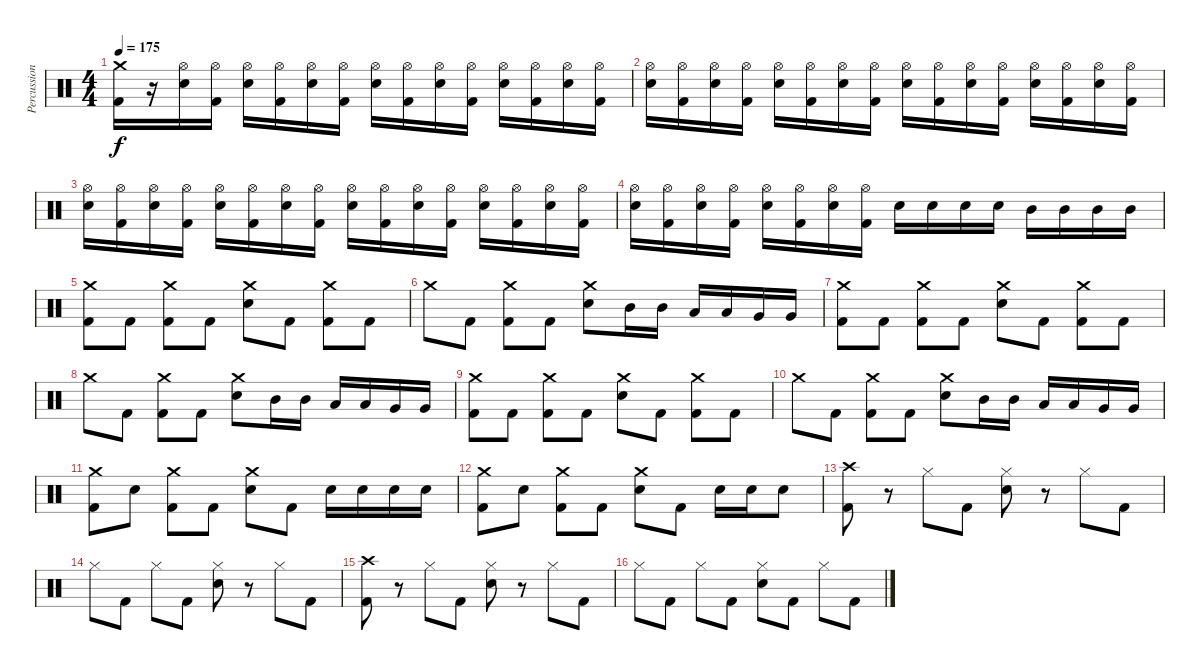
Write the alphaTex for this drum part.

\track ("Percussion" "Percussion") {instrument percussion}
\staff {score}
\articulation defaults
\ts (4 4)
\tempo 175
\clef neutral
\ks c
("Kick (hit) 2" "Crash medium (hit)").16{dy f} r.16 ("Electric Snare (hit)" "Hi-Hat (open)").16 ("Kick (hit) 2" "Hi-Hat (open)").16 ("Electric Snare (hit)" "Hi-Hat (open)").16 ("Kick (hit) 2" "Hi-Hat (open)").16 ("Electric Snare (hit)" "Hi-Hat (open)").16 ("Kick (hit) 2" "Hi-Hat (open)").16 ("Electric Snare (hit)" "Hi-Hat (open)").16 ("Kick (hit) 2" "Hi-Hat (open)").16 ("Electric Snare (hit)" "Hi-Hat (open)").16 ("Kick (hit) 2" "Hi-Hat (open)").16 ("Electric Snare (hit)" "Hi-Hat (open)").16 ("Kick (hit) 2" "Hi-Hat (open)").16 ("Electric Snare (hit)" "Hi-Hat (open)").16 ("Kick (hit) 2" "Hi-Hat (open)").16 |
("Electric Snare (hit)" "Hi-Hat (open)").16 ("Kick (hit) 2" "Hi-Hat (open)").16 ("Electric Snare (hit)" "Hi-Hat (open)").16 ("Kick (hit) 2" "Hi-Hat (open)").16 ("Electric Snare (hit)" "Hi-Hat (open)").16 ("Kick (hit) 2" "Hi-Hat (open)").16 ("Electric Snare (hit)" "Hi-Hat (open)").16 ("Kick (hit) 2" "Hi-Hat (open)").16 ("Electric Snare (hit)" "Hi-Hat (open)").16 ("Kick (hit) 2" "Hi-Hat (open)").16 ("Electric Snare (hit)" "Hi-Hat (open)").16 ("Kick (hit) 2" "Hi-Hat (open)").16 ("Electric Snare (hit)" "Hi-Hat (open)").16 ("Kick (hit) 2" "Hi-Hat (open)").16 ("Electric Snare (hit)" "Hi-Hat (open)").16 ("Kick (hit) 2" "Hi-Hat (open)").16 |
("Electric Snare (hit)" "Hi-Hat (open)").16 ("Kick (hit) 2" "Hi-Hat (open)").16 ("Electric Snare (hit)" "Hi-Hat (open)").16 ("Kick (hit) 2" "Hi-Hat (open)").16 ("Electric Snare (hit)" "Hi-Hat (open)").16 ("Kick (hit) 2" "Hi-Hat (open)").16 ("Electric Snare (hit)" "Hi-Hat (open)").16 ("Kick (hit) 2" "Hi-Hat (open)").16 ("Electric Snare (hit)" "Hi-Hat (open)").16 ("Kick (hit) 2" "Hi-Hat (open)").16 ("Electric Snare (hit)" "Hi-Hat (open)").16 ("Kick (hit) 2" "Hi-Hat (open)").16 ("Electric Snare (hit)" "Hi-Hat (open)").16 ("Kick (hit) 2" "Hi-Hat (open)").16 ("Electric Snare (hit)" "Hi-Hat (open)").16 ("Kick (hit) 2" "Hi-Hat (open)").16 |
("Electric Snare (hit)" "Hi-Hat (open)").16 ("Kick (hit) 2" "Hi-Hat (open)").16 ("Electric Snare (hit)" "Hi-Hat (open)").16 ("Kick (hit) 2" "Hi-Hat (open)").16 ("Electric Snare (hit)" "Hi-Hat (open)").16 ("Kick (hit) 2" "Hi-Hat (open)").16 ("Electric Snare (hit)" "Hi-Hat (open)").16 ("Kick (hit) 2" "Hi-Hat (open)").16 "Electric Snare (hit)".16 "Electric Snare (hit)".16 "Electric Snare (hit)".16 "Electric Snare (hit)".16 "Mid Tom (hit)".16 "Mid Tom (hit)".16 "Mid Tom (hit)".16 "Mid Tom (hit)".16 |
("Kick (hit) 2" "Crash medium (hit)").8 "Kick (hit) 2".8 ("Kick (hit) 2" "Crash medium (hit)").8 "Kick (hit) 2".8 ("Electric Snare (hit)" "Crash medium (hit)").8 "Kick (hit) 2".8 ("Kick (hit) 2" "Crash medium (hit)").8 "Kick (hit) 2".8 |
"Crash medium (hit)".8 "Kick (hit) 2".8 ("Kick (hit) 2" "Crash medium (hit)").8 "Kick (hit) 2".8 ("Electric Snare (hit)" "Crash medium (hit)").8 "Mid Tom (hit)".16 "Mid Tom (hit)".16 "Low Tom (hit)".16 "Low Tom (hit)".16 "Very Low Tom (hit)".16 "Very Low Tom (hit)".16 |
("Kick (hit) 2" "Crash medium (hit)").8 "Kick (hit) 2".8 ("Kick (hit) 2" "Crash medium (hit)").8 "Kick (hit) 2".8 ("Electric Snare (hit)" "Crash medium (hit)").8 "Kick (hit) 2".8 ("Kick (hit) 2" "Crash medium (hit)").8 "Kick (hit) 2".8 |
"Crash medium (hit)".8 "Kick (hit) 2".8 ("Kick (hit) 2" "Crash medium (hit)").8 "Kick (hit) 2".8 ("Electric Snare (hit)" "Crash medium (hit)").8 "Mid Tom (hit)".16 "Mid Tom (hit)".16 "Low Tom (hit)".16 "Low Tom (hit)".16 "Very Low Tom (hit)".16 "Very Low Tom (hit)".16 |
("Kick (hit) 2" "Crash medium (hit)").8 "Kick (hit) 2".8 ("Kick (hit) 2" "Crash medium (hit)").8 "Kick (hit) 2".8 ("Electric Snare (hit)" "Crash medium (hit)").8 "Kick (hit) 2".8 ("Kick (hit) 2" "Crash medium (hit)").8 "Kick (hit) 2".8 |
"Crash medium (hit)".8 "Kick (hit) 2".8 ("Kick (hit) 2" "Crash medium (hit)").8 "Kick (hit) 2".8 ("Electric Snare (hit)" "Crash medium (hit)").8 "Mid Tom (hit)".16 "Mid Tom (hit)".16 "Low Tom (hit)".16 "Low Tom (hit)".16 "Very Low Tom (hit)".16 "Very Low Tom (hit)".16 |
("Kick (hit) 2" "Crash medium (hit)").8 "Electric Snare (hit)".8 ("Kick (hit) 2" "Crash medium (hit)").8 "Kick (hit) 2".8 ("Electric Snare (hit)" "Crash medium (hit)").8 "Kick (hit) 2".8 "Electric Snare (hit)".16 "Electric Snare (hit)".16 "Electric Snare (hit)".16 "Electric Snare (hit)".16 |
("Kick (hit) 2" "Crash medium (hit)").8 "Electric Snare (hit)".8 ("Kick (hit) 2" "Crash medium (hit)").8 "Kick (hit) 2".8 ("Electric Snare (hit)" "Crash medium (hit)").8 "Kick (hit) 2".8 "Electric Snare (hit)".16 "Electric Snare (hit)".16 "Electric Snare (hit)".8 |
("Kick (hit) 2" "Crash high (hit)").8 r.8 "Hi-Hat (closed)".8 "Kick (hit) 2".8 ("Electric Snare (hit)" "Hi-Hat (closed)").8 r.8 "Hi-Hat (closed)".8 "Kick (hit) 2".8 |
"Hi-Hat (closed)".8 "Kick (hit) 2".8 "Hi-Hat (closed)".8 "Kick (hit) 2".8 ("Electric Snare (hit)" "Hi-Hat (closed)").8 r.8 "Hi-Hat (closed)".8 "Kick (hit) 2".8 |
("Kick (hit) 2" "Crash high (hit)").8 r.8 "Hi-Hat (closed)".8 "Kick (hit) 2".8 ("Electric Snare (hit)" "Hi-Hat (closed)").8 r.8 "Hi-Hat (closed)".8 "Kick (hit) 2".8 |
"Hi-Hat (closed)".8 "Kick (hit) 2".8 "Hi-Hat (closed)".8 "Kick (hit) 2".8 ("Electric Snare (hit)" "Hi-Hat (closed)").8 "Kick (hit) 2".8 "Hi-Hat (closed)".8 "Kick (hit) 2".8
